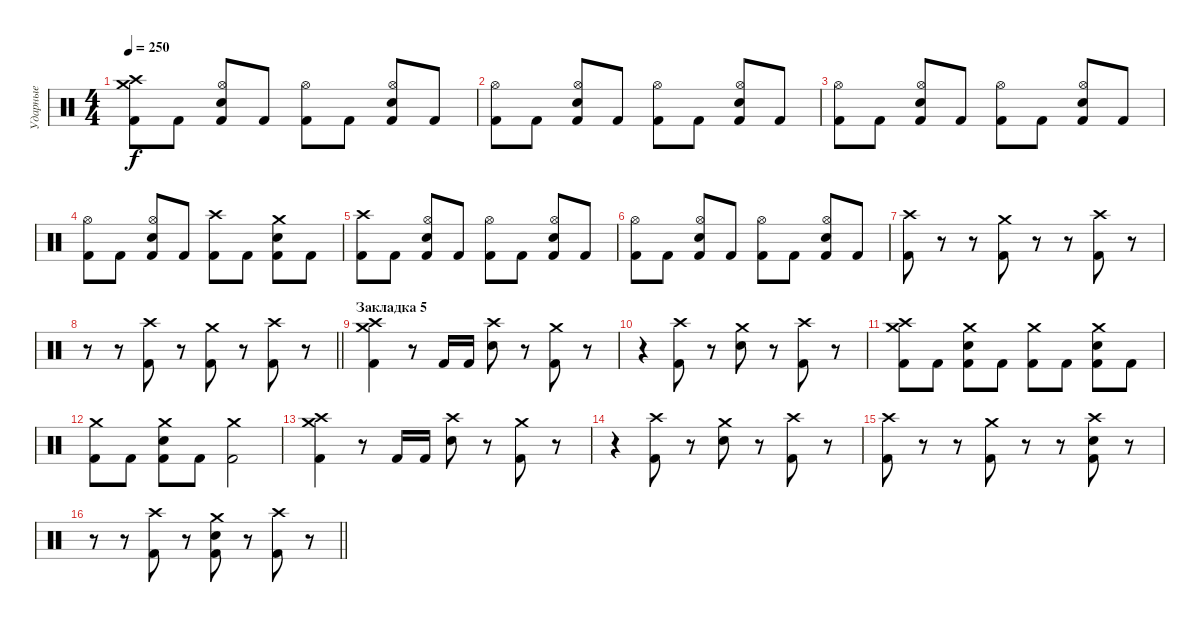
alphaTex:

\track ("Ударные" "Ударные") {instrument percussion}
\staff {score}
\articulation defaults
\ts (4 4)
\tempo 250
\clef neutral
\ks c
("Crash medium (hit)" "Crash high (hit)" "Kick (hit) 2").8{dy f} "Kick (hit) 2".8 ("Hi-Hat (open)" "Electric Snare (hit)" "Kick (hit) 2").8 "Kick (hit) 2".8 ("Hi-Hat (open)" "Kick (hit) 2").8 "Kick (hit) 2".8 ("Hi-Hat (open)" "Electric Snare (hit)" "Kick (hit) 2").8 "Kick (hit) 2".8 |
("Hi-Hat (open)" "Kick (hit) 2").8 "Kick (hit) 2".8 ("Hi-Hat (open)" "Electric Snare (hit)" "Kick (hit) 2").8 "Kick (hit) 2".8 ("Hi-Hat (open)" "Kick (hit) 2").8 "Kick (hit) 2".8 ("Hi-Hat (open)" "Electric Snare (hit)" "Kick (hit) 2").8 "Kick (hit) 2".8 |
("Hi-Hat (open)" "Kick (hit) 2").8 "Kick (hit) 2".8 ("Hi-Hat (open)" "Electric Snare (hit)" "Kick (hit) 2").8 "Kick (hit) 2".8 ("Hi-Hat (open)" "Kick (hit) 2").8 "Kick (hit) 2".8 ("Hi-Hat (open)" "Electric Snare (hit)" "Kick (hit) 2").8 "Kick (hit) 2".8 |
("Hi-Hat (open)" "Kick (hit) 2").8 "Kick (hit) 2".8 ("Hi-Hat (open)" "Electric Snare (hit)" "Kick (hit) 2").8 "Kick (hit) 2".8 ("Crash high (hit)" "Kick (hit) 2").8 "Kick (hit) 2".8 ("Crash medium (hit)" "Electric Snare (hit)" "Kick (hit) 2").8 "Kick (hit) 2".8 |
("Crash high (hit)" "Kick (hit) 2").8 "Kick (hit) 2".8 ("Hi-Hat (open)" "Electric Snare (hit)" "Kick (hit) 2").8 "Kick (hit) 2".8 ("Hi-Hat (open)" "Kick (hit) 2").8 "Kick (hit) 2".8 ("Hi-Hat (open)" "Electric Snare (hit)" "Kick (hit) 2").8 "Kick (hit) 2".8 |
("Hi-Hat (open)" "Kick (hit) 2").8 "Kick (hit) 2".8 ("Hi-Hat (open)" "Electric Snare (hit)" "Kick (hit) 2").8 "Kick (hit) 2".8 ("Hi-Hat (open)" "Kick (hit) 2").8 "Kick (hit) 2".8 ("Hi-Hat (open)" "Electric Snare (hit)" "Kick (hit) 2").8 "Kick (hit) 2".8 |
("Crash high (hit)" "Kick (hit) 2").8 r.8 r.8 ("Crash medium (hit)" "Kick (hit) 2").8 r.8 r.8 ("Crash high (hit)" "Kick (hit) 2").8 r.8 |
\barLineRight lightlight
r.8 r.8 ("Crash high (hit)" "Kick (hit) 2").8 r.8 ("Crash medium (hit)" "Kick (hit) 2").8 r.8 ("Crash high (hit)" "Kick (hit) 2").8 r.8 |
\section ("" "Закладка 5")
("Crash medium (hit)" "Crash high (hit)" "Kick (hit) 2").4 r.8 "Kick (hit) 2".16 "Kick (hit) 2".16 ("Crash high (hit)" "Electric Snare (hit)").8 r.8 ("Crash medium (hit)" "Kick (hit) 2").8 r.8 |
r.4 ("Crash high (hit)" "Kick (hit) 2").8 r.8 ("Crash medium (hit)" "Electric Snare (hit)").8 r.8 ("Crash high (hit)" "Kick (hit) 2").8 r.8 |
("Crash medium (hit)" "Crash high (hit)" "Kick (hit) 2").8 "Kick (hit) 2".8 ("Crash medium (hit)" "Electric Snare (hit)" "Kick (hit) 2").8 "Kick (hit) 2".8 ("Crash medium (hit)" "Kick (hit) 2").8 "Kick (hit) 2".8 ("Crash medium (hit)" "Electric Snare (hit)" "Kick (hit) 2").8 "Kick (hit) 2".8 |
("Crash medium (hit)" "Kick (hit) 2").8 "Kick (hit) 2".8 ("Crash medium (hit)" "Electric Snare (hit)" "Kick (hit) 2").8 "Kick (hit) 2".8 ("Crash medium (hit)" "Kick (hit) 2").2 |
("Crash medium (hit)" "Crash high (hit)" "Kick (hit) 2").4 r.8 "Kick (hit) 2".16 "Kick (hit) 2".16 ("Crash high (hit)" "Electric Snare (hit)").8 r.8 ("Crash medium (hit)" "Kick (hit) 2").8 r.8 |
r.4 ("Crash high (hit)" "Kick (hit) 2").8 r.8 ("Crash medium (hit)" "Electric Snare (hit)").8 r.8 ("Crash high (hit)" "Kick (hit) 2").8 r.8 |
("Crash high (hit)" "Kick (hit) 2").8 r.8 r.8 ("Crash medium (hit)" "Kick (hit) 2").8 r.8 r.8 ("Crash high (hit)" "Electric Snare (hit)" "Kick (hit) 2").8 r.8 |
\barLineRight lightlight
r.8 r.8 ("Crash high (hit)" "Kick (hit) 2").8 r.8 ("Crash medium (hit)" "Electric Snare (hit)" "Kick (hit) 2").8 r.8 ("Crash high (hit)" "Kick (hit) 2").8 r.8
